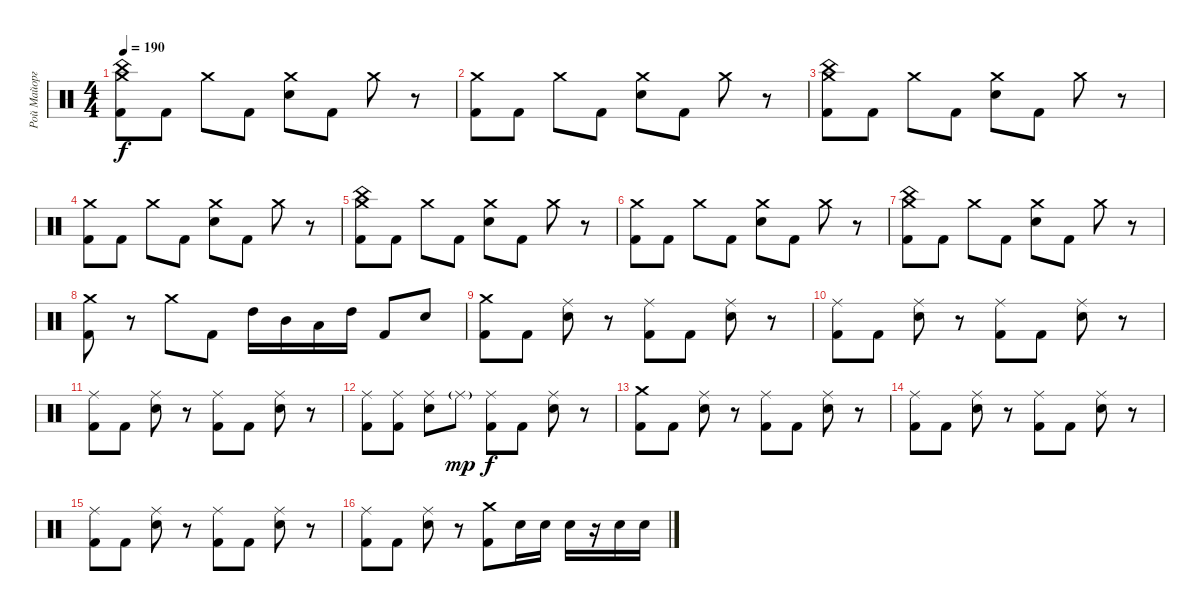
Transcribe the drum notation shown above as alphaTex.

\track ("Рой Майорга" "Рой Майорг") {instrument percussion}
\staff {score}
\articulation defaults
\ts (4 4)
\tempo 190
\clef neutral
\ks c
("Crash medium (hit)" "China (hit)" "Kick (hit) 2").8{dy f} "Kick (hit) 2".8 "Crash medium (hit)".8 "Kick (hit) 2".8 ("Crash medium (hit)" "Electric Snare (hit)").8 "Kick (hit) 2".8 "Crash medium (hit)".8 r.8 |
("Crash medium (hit)" "Kick (hit) 2").8 "Kick (hit) 2".8 "Crash medium (hit)".8 "Kick (hit) 2".8 ("Crash medium (hit)" "Electric Snare (hit)").8 "Kick (hit) 2".8 "Crash medium (hit)".8 r.8 |
("Crash medium (hit)" "China (hit)" "Kick (hit) 2").8 "Kick (hit) 2".8 "Crash medium (hit)".8 "Kick (hit) 2".8 ("Crash medium (hit)" "Electric Snare (hit)").8 "Kick (hit) 2".8 "Crash medium (hit)".8 r.8 |
("Crash medium (hit)" "Kick (hit) 2").8 "Kick (hit) 2".8 "Crash medium (hit)".8 "Kick (hit) 2".8 ("Crash medium (hit)" "Electric Snare (hit)").8 "Kick (hit) 2".8 "Crash medium (hit)".8 r.8 |
("Crash medium (hit)" "China (hit)" "Kick (hit) 2").8 "Kick (hit) 2".8 "Crash medium (hit)".8 "Kick (hit) 2".8 ("Crash medium (hit)" "Electric Snare (hit)").8 "Kick (hit) 2".8 "Crash medium (hit)".8 r.8 |
("Crash medium (hit)" "Kick (hit) 2").8 "Kick (hit) 2".8 "Crash medium (hit)".8 "Kick (hit) 2".8 ("Crash medium (hit)" "Electric Snare (hit)").8 "Kick (hit) 2".8 "Crash medium (hit)".8 r.8 |
("Crash medium (hit)" "China (hit)" "Kick (hit) 2").8 "Kick (hit) 2".8 "Crash medium (hit)".8 "Kick (hit) 2".8 ("Crash medium (hit)" "Electric Snare (hit)").8 "Kick (hit) 2".8 "Crash medium (hit)".8 r.8 |
("Crash medium (hit)" "Kick (hit) 2").8 r.8 "Crash medium (hit)".8 "Kick (hit) 2".8 "High Tom (hit)".16 "Mid Tom (hit)".16 "Low Tom (hit)".16 "High Tom (hit)".16 "Kick (hit) 2".8 "Electric Snare (hit)".8 |
("Crash medium (hit)" "Kick (hit) 2").8 "Kick (hit) 2".8 ("Ride (middle)" "Electric Snare (hit)").8 r.8 ("Ride (middle)" "Kick (hit) 2").8 "Kick (hit) 2".8 ("Ride (middle)" "Electric Snare (hit)").8 r.8 |
("Ride (middle)" "Kick (hit) 2").8 "Kick (hit) 2".8 ("Ride (middle)" "Electric Snare (hit)").8 r.8 ("Ride (middle)" "Kick (hit) 2").8 "Kick (hit) 2".8 ("Ride (middle)" "Electric Snare (hit)").8 r.8 |
("Ride (middle)" "Kick (hit) 2").8 "Kick (hit) 2".8 ("Ride (middle)" "Electric Snare (hit)").8 r.8 ("Ride (middle)" "Kick (hit) 2").8 "Kick (hit) 2".8 ("Ride (middle)" "Electric Snare (hit)").8 r.8 |
("Ride (middle)" "Kick (hit) 2").8 ("Ride (middle)" "Kick (hit) 2").8 ("Ride (middle)" "Electric Snare (hit)").8 "Ride (middle)"{g}.8{dy mp} ("Ride (middle)" "Kick (hit) 2").8{dy f} "Kick (hit) 2".8 ("Ride (middle)" "Electric Snare (hit)").8 r.8 |
("Crash medium (hit)" "Kick (hit) 2").8 "Kick (hit) 2".8 ("Ride (middle)" "Electric Snare (hit)").8 r.8 ("Ride (middle)" "Kick (hit) 2").8 "Kick (hit) 2".8 ("Ride (middle)" "Electric Snare (hit)").8 r.8 |
("Ride (middle)" "Kick (hit) 2").8 "Kick (hit) 2".8 ("Ride (middle)" "Electric Snare (hit)").8 r.8 ("Ride (middle)" "Kick (hit) 2").8 "Kick (hit) 2".8 ("Ride (middle)" "Electric Snare (hit)").8 r.8 |
("Ride (middle)" "Kick (hit) 2").8 "Kick (hit) 2".8 ("Ride (middle)" "Electric Snare (hit)").8 r.8 ("Ride (middle)" "Kick (hit) 2").8 "Kick (hit) 2".8 ("Ride (middle)" "Electric Snare (hit)").8 r.8 |
("Ride (middle)" "Kick (hit) 2").8 "Kick (hit) 2".8 ("Ride (middle)" "Electric Snare (hit)").8 r.8 ("Crash medium (hit)" "Kick (hit) 2").8 "Electric Snare (hit)".16 "Electric Snare (hit)".16 "Electric Snare (hit)".16 r.16 "Electric Snare (hit)".16 "Electric Snare (hit)".16
